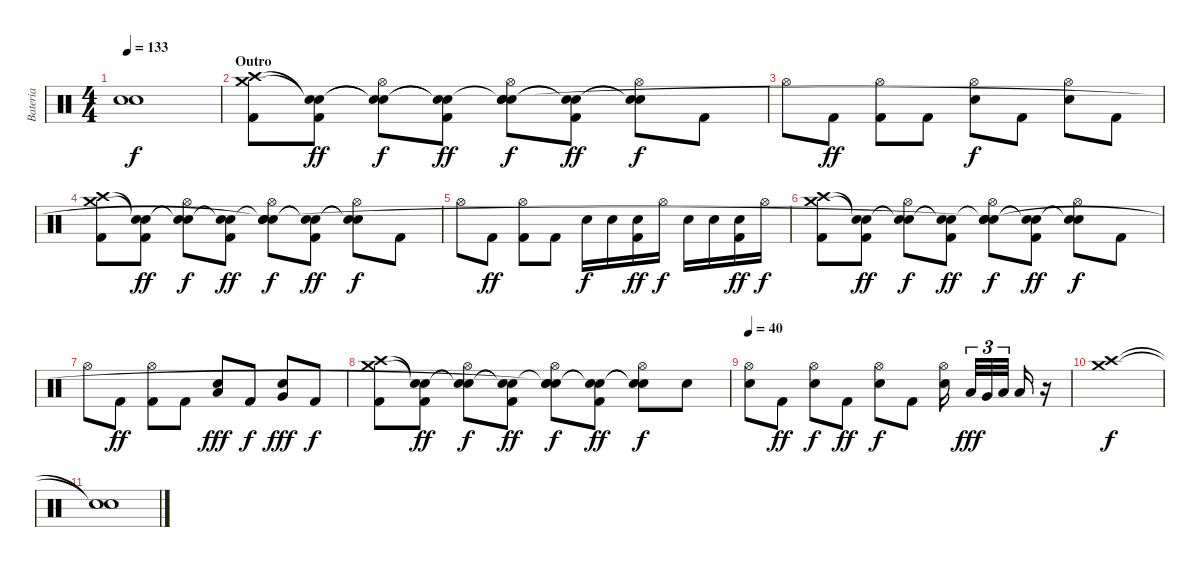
\track ("Bateria" "Bateria") {instrument percussion}
\staff {score}
\articulation defaults
\ts (4 4)
\tempo 133
\clef neutral
\ks c
("Snare (hit)"{t} "Snare (hit)"{t}).1{dy f} |
\section ("" "Outro")
("Kick (hit) 2" "Crash high (hit)" "Crash medium (hit)").8 ("Kick (hit) 2" "Snare (hit)"{t} "Snare (hit)"{t}).8{dy ff} ("Hi-Hat (open)" "Snare (hit)"{t} "Snare (hit)"{t}).8{dy f} ("Kick (hit) 2" "Snare (hit)"{t} "Snare (hit)"{t}).8{dy ff} ("Hi-Hat (open)" "Snare (hit) 2" "Snare (hit)"{t} "Snare (hit)").8{dy f} ("Kick (hit) 2" "Snare (hit)"{t} "Snare (hit)"{t}).8{dy ff} ("Hi-Hat (open)" "Snare (hit)"{t} "Snare (hit)"{t}).8{dy f} "Kick (hit) 2".8 |
"Hi-Hat (open)".8 "Kick (hit) 2".8{dy ff} ("Hi-Hat (open)" "Kick (hit) 2").8 "Kick (hit) 2".8 ("Hi-Hat (open)" "Snare (hit) 2").8{dy f} "Kick (hit) 2".8 ("Hi-Hat (open)" "Snare (hit) 2").8 "Kick (hit) 2".8 |
("Kick (hit) 2" "Crash high (hit)" "Crash medium (hit)").8 ("Kick (hit) 2" "Snare (hit)"{t} "Snare (hit)"{t}).8{dy ff} ("Hi-Hat (open)" "Snare (hit)"{t} "Snare (hit)"{t}).8{dy f} ("Kick (hit) 2" "Snare (hit)"{t} "Snare (hit)"{t}).8{dy ff} ("Hi-Hat (open)" "Snare (hit) 2" "Snare (hit)"{t} "Snare (hit)"{t}).8{dy f} ("Kick (hit) 2" "Snare (hit)"{t} "Snare (hit)"{t}).8{dy ff} ("Hi-Hat (open)" "Snare (hit)"{t} "Snare (hit)"{t}).8{dy f} "Kick (hit) 2".8 |
"Hi-Hat (open)".8 "Kick (hit) 2".8{dy ff} ("Hi-Hat (open)" "Kick (hit) 2").8 "Kick (hit) 2".8 "Snare (hit) 2".16{dy f} "Snare (hit) 2".16 ("Snare (hit) 2" "Kick (hit) 2").16{dy ff} "Hi-Hat (open)".16{dy f} "Snare (hit) 2".16 "Snare (hit) 2".16 ("Snare (hit) 2" "Kick (hit) 2").16{dy ff} "Hi-Hat (open)".16{dy f} |
("Kick (hit) 2" "Crash high (hit)" "Crash medium (hit)").8 ("Kick (hit) 2" "Snare (hit)"{t} "Snare (hit)"{t}).8{dy ff} ("Hi-Hat (open)" "Snare (hit)"{t} "Snare (hit)"{t}).8{dy f} ("Kick (hit) 2" "Snare (hit)"{t} "Snare (hit)"{t}).8{dy ff} ("Hi-Hat (open)" "Snare (hit) 2" "Snare (hit)"{t} "Snare (hit)"{t}).8{dy f} ("Kick (hit) 2" "Snare (hit)"{t} "Snare (hit)"{t}).8{dy ff} ("Hi-Hat (open)" "Snare (hit)"{t} "Snare (hit)"{t}).8{dy f} "Kick (hit) 2".8 |
"Hi-Hat (open)".8 "Kick (hit) 2".8{dy ff} ("Hi-Hat (open)" "Kick (hit) 2").8 "Kick (hit) 2".8 ("Low Floor Tom (hit)" "Snare (hit) 2").8{dy fff} "Kick (hit) 2".8{dy f} ("Very Low Tom (hit)" "Snare (hit) 2").8{dy fff} "Kick (hit) 2".8{dy f} |
("Kick (hit) 2" "Crash high (hit)" "Crash medium (hit)").8 ("Kick (hit) 2" "Snare (hit)"{t} "Snare (hit)"{t}).8{dy ff} ("Hi-Hat (open)" "Snare (hit)"{t} "Snare (hit)"{t}).8{dy f} ("Kick (hit) 2" "Snare (hit)"{t} "Snare (hit)"{t}).8{dy ff} ("Hi-Hat (open)" "Snare (hit) 2" "Snare (hit)"{t} "Snare (hit)"{t}).8{dy f} ("Kick (hit) 2" "Snare (hit)"{t} "Snare (hit)"{t}).8{dy ff} ("Hi-Hat (open)" "Snare (hit)"{t} "Snare (hit)"{t}).8{dy f} "Snare (hit) 2".8 |
\tempo 40
("Hi-Hat (open)" "Snare (hit) 2").8 "Kick (hit) 2".8{dy ff} ("Hi-Hat (open)" "Snare (hit) 2").8{dy f} "Kick (hit) 2".8{dy ff} ("Hi-Hat (open)" "Snare (hit) 2").8{dy f} "Kick (hit) 2".8 ("Hi-Hat (open)" "Snare (hit) 2").16 "Low Tom (hit)".32{tu (3 2) dy fff} "Very Low Tom (hit)".32{tu (3 2)} "Low Floor Tom (hit)".32{tu (3 2)} "Low Floor Tom (hit)".16 r.16 |
("Crash medium (hit)" "Crash high (hit)").1{dy f} |
("Snare (hit)"{t} "Snare (hit)"{t}).1
